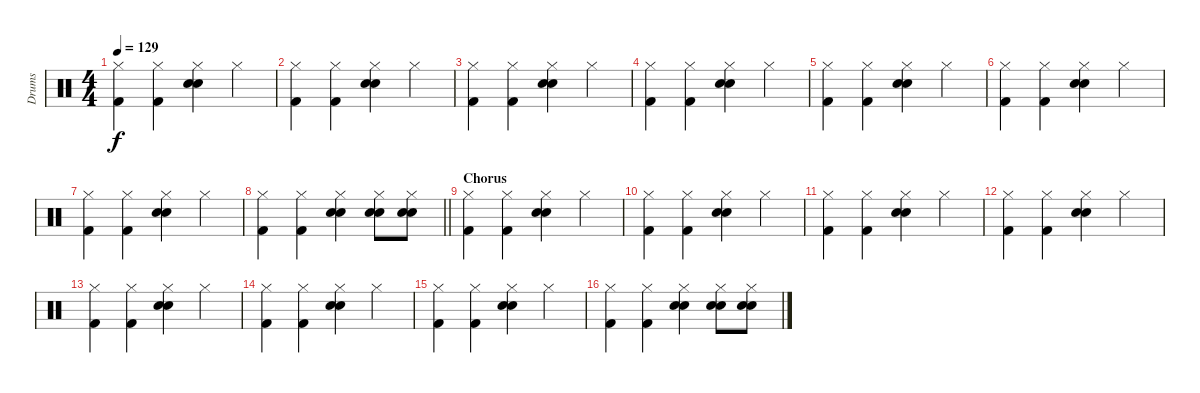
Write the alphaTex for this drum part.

\track ("Drums" "Drums") {instrument percussion}
\staff {score}
\articulation defaults
\ts (4 4)
\tempo 129
\clef neutral
\ks c
("Kick (hit) 2" "Hi-Hat (closed)").4{dy f} ("Kick (hit) 2" "Hi-Hat (closed)").4 ("Snare (hit) 2" "Electric Snare (hit)" "Hi-Hat (closed)").4 "Hi-Hat (closed)".4 |
("Kick (hit) 2" "Hi-Hat (closed)").4 ("Kick (hit) 2" "Hi-Hat (closed)").4 ("Snare (hit) 2" "Electric Snare (hit)" "Hi-Hat (closed)").4 "Hi-Hat (closed)".4 |
("Kick (hit) 2" "Hi-Hat (closed)").4 ("Kick (hit) 2" "Hi-Hat (closed)").4 ("Snare (hit) 2" "Electric Snare (hit)" "Hi-Hat (closed)").4 "Hi-Hat (closed)".4 |
("Kick (hit) 2" "Hi-Hat (closed)").4 ("Kick (hit) 2" "Hi-Hat (closed)").4 ("Snare (hit) 2" "Electric Snare (hit)" "Hi-Hat (closed)").4 "Hi-Hat (closed)".4 |
("Kick (hit) 2" "Hi-Hat (closed)").4 ("Kick (hit) 2" "Hi-Hat (closed)").4 ("Snare (hit) 2" "Electric Snare (hit)" "Hi-Hat (closed)").4 "Hi-Hat (closed)".4 |
("Kick (hit) 2" "Hi-Hat (closed)").4 ("Kick (hit) 2" "Hi-Hat (closed)").4 ("Snare (hit) 2" "Electric Snare (hit)" "Hi-Hat (closed)").4 "Hi-Hat (closed)".4 |
("Kick (hit) 2" "Hi-Hat (closed)").4 ("Kick (hit) 2" "Hi-Hat (closed)").4 ("Snare (hit) 2" "Electric Snare (hit)" "Hi-Hat (closed)").4 "Hi-Hat (closed)".4 |
\barLineRight lightlight
("Kick (hit) 2" "Hi-Hat (closed)").4 ("Kick (hit) 2" "Hi-Hat (closed)").4 ("Snare (hit) 2" "Electric Snare (hit)" "Hi-Hat (closed)").4 ("Electric Snare (hit)" "Snare (hit) 2" "Hi-Hat (closed)").8 ("Electric Snare (hit)" "Snare (hit) 2" "Hi-Hat (closed)").8 |
\section ("" "Chorus")
("Kick (hit) 2" "Hi-Hat (closed)").4 ("Kick (hit) 2" "Hi-Hat (closed)").4 ("Snare (hit) 2" "Electric Snare (hit)" "Hi-Hat (closed)").4 "Hi-Hat (closed)".4 |
("Kick (hit) 2" "Hi-Hat (closed)").4 ("Kick (hit) 2" "Hi-Hat (closed)").4 ("Snare (hit) 2" "Electric Snare (hit)" "Hi-Hat (closed)").4 "Hi-Hat (closed)".4 |
("Kick (hit) 2" "Hi-Hat (closed)").4 ("Kick (hit) 2" "Hi-Hat (closed)").4 ("Snare (hit) 2" "Electric Snare (hit)" "Hi-Hat (closed)").4 "Hi-Hat (closed)".4 |
("Kick (hit) 2" "Hi-Hat (closed)").4 ("Kick (hit) 2" "Hi-Hat (closed)").4 ("Snare (hit) 2" "Electric Snare (hit)" "Hi-Hat (closed)").4 "Hi-Hat (closed)".4 |
("Kick (hit) 2" "Hi-Hat (closed)").4 ("Kick (hit) 2" "Hi-Hat (closed)").4 ("Snare (hit) 2" "Electric Snare (hit)" "Hi-Hat (closed)").4 "Hi-Hat (closed)".4 |
("Kick (hit) 2" "Hi-Hat (closed)").4 ("Kick (hit) 2" "Hi-Hat (closed)").4 ("Snare (hit) 2" "Electric Snare (hit)" "Hi-Hat (closed)").4 "Hi-Hat (closed)".4 |
("Kick (hit) 2" "Hi-Hat (closed)").4 ("Kick (hit) 2" "Hi-Hat (closed)").4 ("Snare (hit) 2" "Electric Snare (hit)" "Hi-Hat (closed)").4 "Hi-Hat (closed)".4 |
("Kick (hit) 2" "Hi-Hat (closed)").4 ("Kick (hit) 2" "Hi-Hat (closed)").4 ("Snare (hit) 2" "Electric Snare (hit)" "Hi-Hat (closed)").4 ("Electric Snare (hit)" "Snare (hit) 2" "Hi-Hat (closed)").8 ("Electric Snare (hit)" "Snare (hit) 2" "Hi-Hat (closed)").8
